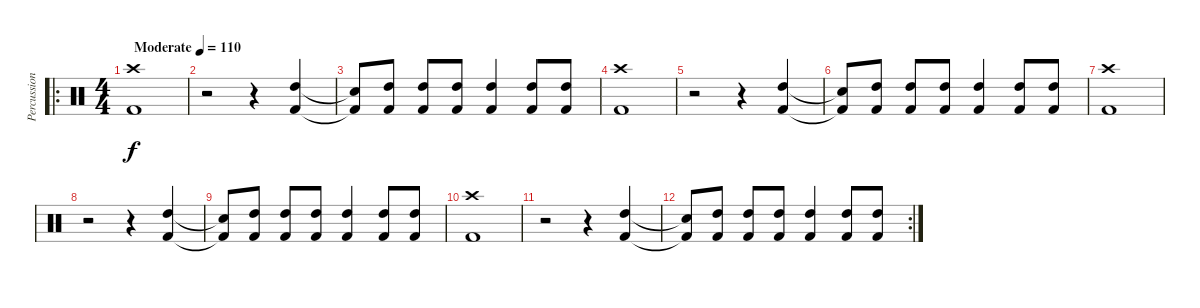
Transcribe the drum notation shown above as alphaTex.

\track ("Percussion" "Percussion") {instrument percussion}
\staff {score}
\articulation defaults
\ro
\ts (4 4)
\tempo (110 "Moderate")
\clef neutral
\ks c
("Kick (hit) 2" "Crash high (hit)").1{dy f} |
r.2 r.4 ("Kick (hit) 2" "High Tom (hit)").4 |
("Kick (hit) 2"{t} "Snare (hit)"{t}).8 ("Kick (hit) 2" "High Tom (hit)").8 ("Kick (hit) 2" "High Tom (hit)").8 ("Kick (hit) 2" "High Tom (hit)").8 ("Kick (hit) 2" "High Tom (hit)").4 ("Kick (hit) 2" "High Tom (hit)").8 ("Kick (hit) 2" "High Tom (hit)").8 |
("Kick (hit) 2" "Crash high (hit)").1 |
r.2 r.4 ("Kick (hit) 2" "High Tom (hit)").4 |
("Kick (hit) 2"{t} "Snare (hit)"{t}).8 ("Kick (hit) 2" "High Tom (hit)").8 ("Kick (hit) 2" "High Tom (hit)").8 ("Kick (hit) 2" "High Tom (hit)").8 ("Kick (hit) 2" "High Tom (hit)").4 ("Kick (hit) 2" "High Tom (hit)").8 ("Kick (hit) 2" "High Tom (hit)").8 |
("Kick (hit) 2" "Crash high (hit)").1 |
r.2 r.4 ("Kick (hit) 2" "High Tom (hit)").4 |
("Kick (hit) 2"{t} "Snare (hit)"{t}).8 ("Kick (hit) 2" "High Tom (hit)").8 ("Kick (hit) 2" "High Tom (hit)").8 ("Kick (hit) 2" "High Tom (hit)").8 ("Kick (hit) 2" "High Tom (hit)").4 ("Kick (hit) 2" "High Tom (hit)").8 ("Kick (hit) 2" "High Tom (hit)").8 |
("Kick (hit) 2" "Crash high (hit)").1 |
r.2 r.4 ("Kick (hit) 2" "High Tom (hit)").4 |
\rc 2
("Kick (hit) 2"{t} "Snare (hit)"{t}).8 ("Kick (hit) 2" "High Tom (hit)").8 ("Kick (hit) 2" "High Tom (hit)").8 ("Kick (hit) 2" "High Tom (hit)").8 ("Kick (hit) 2" "High Tom (hit)").4 ("Kick (hit) 2" "High Tom (hit)").8 ("Kick (hit) 2" "High Tom (hit)").8
